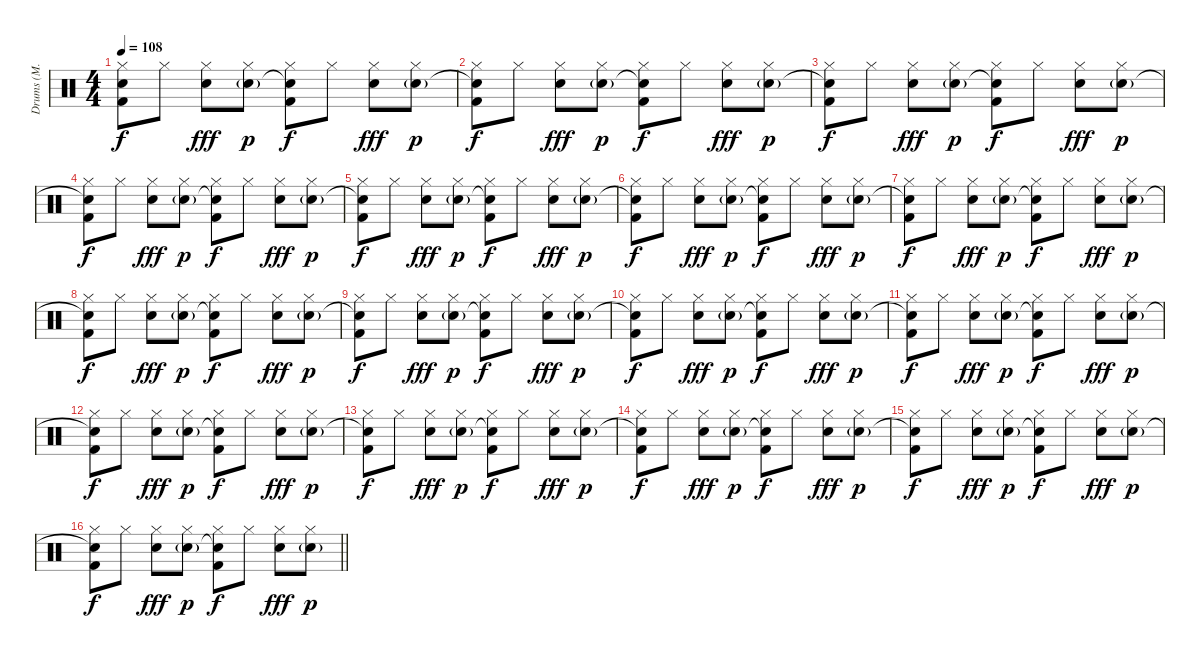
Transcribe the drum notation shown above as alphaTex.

\track ("Drums (M. Chambers)" "Drums (M. ") {instrument percussion}
\staff {score}
\articulation defaults
\ts (4 4)
\tempo 108
\clef neutral
\ks c
("Hi-Hat (closed)" "Snare (hit)"{t} "Kick (hit) 2").8{dy f} "Hi-Hat (closed)".8 ("Hi-Hat (closed)" "Electric Snare (hit)").8{dy fff} ("Hi-Hat (closed)" "Electric Snare (hit)"{g}).8{dy p} ("Hi-Hat (closed)" "Snare (hit)"{t} "Kick (hit) 2").8{dy f} "Hi-Hat (closed)".8 ("Hi-Hat (closed)" "Electric Snare (hit)").8{dy fff} ("Hi-Hat (closed)" "Electric Snare (hit)"{g}).8{dy p} |
("Hi-Hat (closed)" "Snare (hit)"{t} "Kick (hit) 2").8{dy f} "Hi-Hat (closed)".8 ("Hi-Hat (closed)" "Electric Snare (hit)").8{dy fff} ("Hi-Hat (closed)" "Electric Snare (hit)"{g}).8{dy p} ("Hi-Hat (closed)" "Snare (hit)"{t} "Kick (hit) 2").8{dy f} "Hi-Hat (closed)".8 ("Hi-Hat (closed)" "Electric Snare (hit)").8{dy fff} ("Hi-Hat (closed)" "Electric Snare (hit)"{g}).8{dy p} |
("Hi-Hat (closed)" "Snare (hit)"{t} "Kick (hit) 2").8{dy f} "Hi-Hat (closed)".8 ("Hi-Hat (closed)" "Electric Snare (hit)").8{dy fff} ("Hi-Hat (closed)" "Electric Snare (hit)"{g}).8{dy p} ("Hi-Hat (closed)" "Snare (hit)"{t} "Kick (hit) 2").8{dy f} "Hi-Hat (closed)".8 ("Hi-Hat (closed)" "Electric Snare (hit)").8{dy fff} ("Hi-Hat (closed)" "Electric Snare (hit)"{g}).8{dy p} |
("Hi-Hat (closed)" "Snare (hit)"{t} "Kick (hit) 2").8{dy f} "Hi-Hat (closed)".8 ("Hi-Hat (closed)" "Electric Snare (hit)").8{dy fff} ("Hi-Hat (closed)" "Electric Snare (hit)"{g}).8{dy p} ("Hi-Hat (closed)" "Snare (hit)"{t} "Kick (hit) 2").8{dy f} "Hi-Hat (closed)".8 ("Hi-Hat (closed)" "Electric Snare (hit)").8{dy fff} ("Hi-Hat (closed)" "Electric Snare (hit)"{g}).8{dy p} |
("Hi-Hat (closed)" "Snare (hit)"{t} "Kick (hit) 2").8{dy f} "Hi-Hat (closed)".8 ("Hi-Hat (closed)" "Electric Snare (hit)").8{dy fff} ("Hi-Hat (closed)" "Electric Snare (hit)"{g}).8{dy p} ("Hi-Hat (closed)" "Snare (hit)"{t} "Kick (hit) 2").8{dy f} "Hi-Hat (closed)".8 ("Hi-Hat (closed)" "Electric Snare (hit)").8{dy fff} ("Hi-Hat (closed)" "Electric Snare (hit)"{g}).8{dy p} |
("Hi-Hat (closed)" "Snare (hit)"{t} "Kick (hit) 2").8{dy f} "Hi-Hat (closed)".8 ("Hi-Hat (closed)" "Electric Snare (hit)").8{dy fff} ("Hi-Hat (closed)" "Electric Snare (hit)"{g}).8{dy p} ("Hi-Hat (closed)" "Snare (hit)"{t} "Kick (hit) 2").8{dy f} "Hi-Hat (closed)".8 ("Hi-Hat (closed)" "Electric Snare (hit)").8{dy fff} ("Hi-Hat (closed)" "Electric Snare (hit)"{g}).8{dy p} |
("Hi-Hat (closed)" "Snare (hit)"{t} "Kick (hit) 2").8{dy f} "Hi-Hat (closed)".8 ("Hi-Hat (closed)" "Electric Snare (hit)").8{dy fff} ("Hi-Hat (closed)" "Electric Snare (hit)"{g}).8{dy p} ("Hi-Hat (closed)" "Snare (hit)"{t} "Kick (hit) 2").8{dy f} "Hi-Hat (closed)".8 ("Hi-Hat (closed)" "Electric Snare (hit)").8{dy fff} ("Hi-Hat (closed)" "Electric Snare (hit)"{g}).8{dy p} |
("Hi-Hat (closed)" "Snare (hit)"{t} "Kick (hit) 2").8{dy f} "Hi-Hat (closed)".8 ("Hi-Hat (closed)" "Electric Snare (hit)").8{dy fff} ("Hi-Hat (closed)" "Electric Snare (hit)"{g}).8{dy p} ("Hi-Hat (closed)" "Snare (hit)"{t} "Kick (hit) 2").8{dy f} "Hi-Hat (closed)".8 ("Hi-Hat (closed)" "Electric Snare (hit)").8{dy fff} ("Hi-Hat (closed)" "Electric Snare (hit)"{g}).8{dy p} |
("Hi-Hat (closed)" "Snare (hit)"{t} "Kick (hit) 2").8{dy f} "Hi-Hat (closed)".8 ("Hi-Hat (closed)" "Electric Snare (hit)").8{dy fff} ("Hi-Hat (closed)" "Electric Snare (hit)"{g}).8{dy p} ("Hi-Hat (closed)" "Snare (hit)"{t} "Kick (hit) 2").8{dy f} "Hi-Hat (closed)".8 ("Hi-Hat (closed)" "Electric Snare (hit)").8{dy fff} ("Hi-Hat (closed)" "Electric Snare (hit)"{g}).8{dy p} |
("Hi-Hat (closed)" "Snare (hit)"{t} "Kick (hit) 2").8{dy f} "Hi-Hat (closed)".8 ("Hi-Hat (closed)" "Electric Snare (hit)").8{dy fff} ("Hi-Hat (closed)" "Electric Snare (hit)"{g}).8{dy p} ("Hi-Hat (closed)" "Snare (hit)"{t} "Kick (hit) 2").8{dy f} "Hi-Hat (closed)".8 ("Hi-Hat (closed)" "Electric Snare (hit)").8{dy fff} ("Hi-Hat (closed)" "Electric Snare (hit)"{g}).8{dy p} |
("Hi-Hat (closed)" "Snare (hit)"{t} "Kick (hit) 2").8{dy f} "Hi-Hat (closed)".8 ("Hi-Hat (closed)" "Electric Snare (hit)").8{dy fff} ("Hi-Hat (closed)" "Electric Snare (hit)"{g}).8{dy p} ("Hi-Hat (closed)" "Snare (hit)"{t} "Kick (hit) 2").8{dy f} "Hi-Hat (closed)".8 ("Hi-Hat (closed)" "Electric Snare (hit)").8{dy fff} ("Hi-Hat (closed)" "Electric Snare (hit)"{g}).8{dy p} |
("Hi-Hat (closed)" "Snare (hit)"{t} "Kick (hit) 2").8{dy f} "Hi-Hat (closed)".8 ("Hi-Hat (closed)" "Electric Snare (hit)").8{dy fff} ("Hi-Hat (closed)" "Electric Snare (hit)"{g}).8{dy p} ("Hi-Hat (closed)" "Snare (hit)"{t} "Kick (hit) 2").8{dy f} "Hi-Hat (closed)".8 ("Hi-Hat (closed)" "Electric Snare (hit)").8{dy fff} ("Hi-Hat (closed)" "Electric Snare (hit)"{g}).8{dy p} |
("Hi-Hat (closed)" "Snare (hit)"{t} "Kick (hit) 2").8{dy f} "Hi-Hat (closed)".8 ("Hi-Hat (closed)" "Electric Snare (hit)").8{dy fff} ("Hi-Hat (closed)" "Electric Snare (hit)"{g}).8{dy p} ("Hi-Hat (closed)" "Snare (hit)"{t} "Kick (hit) 2").8{dy f} "Hi-Hat (closed)".8 ("Hi-Hat (closed)" "Electric Snare (hit)").8{dy fff} ("Hi-Hat (closed)" "Electric Snare (hit)"{g}).8{dy p} |
("Hi-Hat (closed)" "Snare (hit)"{t} "Kick (hit) 2").8{dy f} "Hi-Hat (closed)".8 ("Hi-Hat (closed)" "Electric Snare (hit)").8{dy fff} ("Hi-Hat (closed)" "Electric Snare (hit)"{g}).8{dy p} ("Hi-Hat (closed)" "Snare (hit)"{t} "Kick (hit) 2").8{dy f} "Hi-Hat (closed)".8 ("Hi-Hat (closed)" "Electric Snare (hit)").8{dy fff} ("Hi-Hat (closed)" "Electric Snare (hit)"{g}).8{dy p} |
("Hi-Hat (closed)" "Snare (hit)"{t} "Kick (hit) 2").8{dy f} "Hi-Hat (closed)".8 ("Hi-Hat (closed)" "Electric Snare (hit)").8{dy fff} ("Hi-Hat (closed)" "Electric Snare (hit)"{g}).8{dy p} ("Hi-Hat (closed)" "Snare (hit)"{t} "Kick (hit) 2").8{dy f} "Hi-Hat (closed)".8 ("Hi-Hat (closed)" "Electric Snare (hit)").8{dy fff} ("Hi-Hat (closed)" "Electric Snare (hit)"{g}).8{dy p} |
\barLineRight lightlight
("Hi-Hat (closed)" "Snare (hit)"{t} "Kick (hit) 2").8{dy f} "Hi-Hat (closed)".8 ("Hi-Hat (closed)" "Electric Snare (hit)").8{dy fff} ("Hi-Hat (closed)" "Electric Snare (hit)"{g}).8{dy p} ("Hi-Hat (closed)" "Snare (hit)"{t} "Kick (hit) 2").8{dy f} "Hi-Hat (closed)".8 ("Hi-Hat (closed)" "Electric Snare (hit)").8{dy fff} ("Hi-Hat (closed)" "Electric Snare (hit)"{g}).8{dy p}
